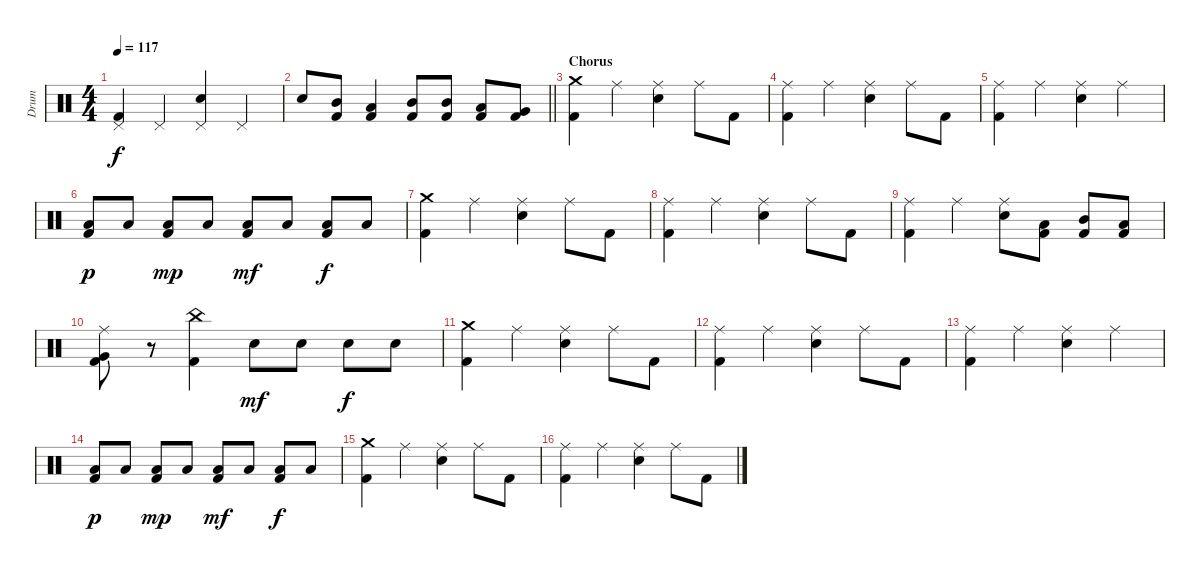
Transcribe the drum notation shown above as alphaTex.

\track ("Drum" "Drum") {instrument percussion}
\staff {score}
\articulation defaults
\ts (4 4)
\tempo 117
\clef neutral
\ks c
("Pedal Hi-Hat (hit)" "Kick (hit) 2").4{dy f} "Pedal Hi-Hat (hit)".4 ("Pedal Hi-Hat (hit)" "Electric Snare (hit)").4 "Pedal Hi-Hat (hit)".4 |
\barLineRight lightlight "Electric Snare (hit)".8
("Mid Tom (hit)" "Kick (hit) 2").8 ("Low Tom (hit)" "Kick (hit) 2").4 ("Mid Tom (hit)" "Kick (hit) 2").8 ("Mid Tom (hit)" "Kick (hit) 2").8 ("Low Tom (hit)" "Kick (hit) 2").8 ("Very Low Tom (hit)" "Kick (hit) 2").8 |
\section ("" "Chorus")
("Crash medium (hit)" "Kick (hit) 2").4 "Ride (middle)".4 ("Ride (middle)" "Electric Snare (hit)").4 "Ride (middle)".8 "Kick (hit) 2".8 |
("Ride (middle)" "Kick (hit) 2").4 "Ride (middle)".4 ("Ride (middle)" "Electric Snare (hit)").4 "Ride (middle)".8 "Kick (hit) 2".8 |
("Ride (middle)" "Kick (hit) 2").4 "Ride (middle)".4 ("Ride (middle)" "Electric Snare (hit)").4 "Ride (middle)".4 |
("Low Tom (hit)" "Kick (hit) 2").8{dy p} "Low Tom (hit)".8 ("Low Tom (hit)" "Kick (hit) 2").8{dy mp} "Low Tom (hit)".8 ("Low Tom (hit)" "Kick (hit) 2").8{dy mf} "Low Tom (hit)".8 ("Low Tom (hit)" "Kick (hit) 2").8{dy f} "Low Tom (hit)".8 |
("Crash medium (hit)" "Kick (hit) 2").4 "Ride (middle)".4 ("Ride (middle)" "Electric Snare (hit)").4 "Ride (middle)".8 "Kick (hit) 2".8 |
("Ride (middle)" "Kick (hit) 2").4 "Ride (middle)".4 ("Ride (middle)" "Electric Snare (hit)").4 "Ride (middle)".8 "Kick (hit) 2".8 |
("Ride (middle)" "Kick (hit) 2").4 "Ride (middle)".4 ("Ride (middle)" "Electric Snare (hit)").8 ("Low Floor Tom (hit)" "Kick (hit) 2").8 ("Mid Tom (hit)" "Kick (hit) 2").8 ("Low Tom (hit)" "Kick (hit) 2").8 |
("Ride (middle)" "Very Low Tom (hit)" "Kick (hit) 2").8 r.8 ("China (hit)" "Kick (hit) 2").4 "Electric Snare (hit)".8{dy mf} "Electric Snare (hit)".8 "Electric Snare (hit)".8{dy f} "Electric Snare (hit)".8 |
("Crash medium (hit)" "Kick (hit) 2").4 "Ride (middle)".4 ("Ride (middle)" "Electric Snare (hit)").4 "Ride (middle)".8 "Kick (hit) 2".8 |
("Ride (middle)" "Kick (hit) 2").4 "Ride (middle)".4 ("Ride (middle)" "Electric Snare (hit)").4 "Ride (middle)".8 "Kick (hit) 2".8 |
("Ride (middle)" "Kick (hit) 2").4 "Ride (middle)".4 ("Ride (middle)" "Electric Snare (hit)").4 "Ride (middle)".4 |
("Low Tom (hit)" "Kick (hit) 2").8{dy p} "Low Tom (hit)".8 ("Low Tom (hit)" "Kick (hit) 2").8{dy mp} "Low Tom (hit)".8 ("Low Tom (hit)" "Kick (hit) 2").8{dy mf} "Low Tom (hit)".8 ("Low Tom (hit)" "Kick (hit) 2").8{dy f} "Low Tom (hit)".8 |
("Crash medium (hit)" "Kick (hit) 2").4 "Ride (middle)".4 ("Ride (middle)" "Electric Snare (hit)").4 "Ride (middle)".8 "Kick (hit) 2".8 |
("Ride (middle)" "Kick (hit) 2").4 "Ride (middle)".4 ("Ride (middle)" "Electric Snare (hit)").4 "Ride (middle)".8 "Kick (hit) 2".8
